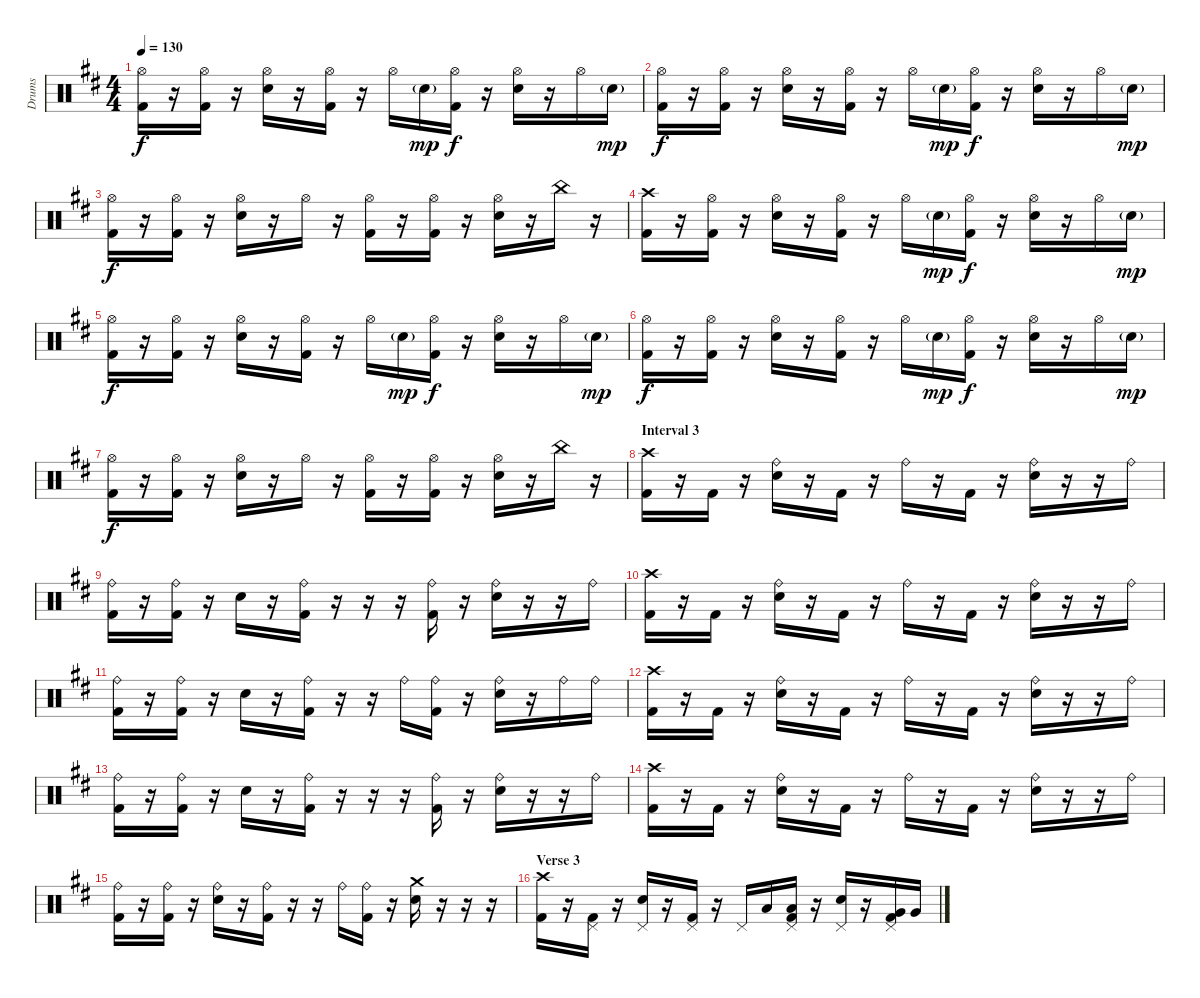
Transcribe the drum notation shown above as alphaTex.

\track ("Drums" "Drums") {instrument percussion}
\staff {score}
\articulation defaults
\ts (4 4)
\tempo 130
\clef neutral
\ks d
("Hi-Hat (open)" "Kick (hit) 2").16{dy f} r.16 ("Hi-Hat (open)" "Kick (hit) 2").16 r.16 ("Hi-Hat (open)" "Electric Snare (hit)").16 r.16 ("Hi-Hat (open)" "Kick (hit) 2").16 r.16 "Hi-Hat (open)".16 "Electric Snare (hit)"{g}.16{dy mp} ("Hi-Hat (open)" "Kick (hit) 2").16{dy f} r.16 ("Hi-Hat (open)" "Electric Snare (hit)").16 r.16 "Hi-Hat (open)".16 "Electric Snare (hit)"{g}.16{dy mp} |
("Hi-Hat (open)" "Kick (hit) 2").16{dy f} r.16 ("Hi-Hat (open)" "Kick (hit) 2").16 r.16 ("Hi-Hat (open)" "Electric Snare (hit)").16 r.16 ("Hi-Hat (open)" "Kick (hit) 2").16 r.16 "Hi-Hat (open)".16 "Electric Snare (hit)"{g}.16{dy mp} ("Hi-Hat (open)" "Kick (hit) 2").16{dy f} r.16 ("Hi-Hat (open)" "Electric Snare (hit)").16 r.16 "Hi-Hat (open)".16 "Electric Snare (hit)"{g}.16{dy mp} |
("Hi-Hat (open)" "Kick (hit) 2").16{dy f} r.16 ("Hi-Hat (open)" "Kick (hit) 2").16 r.16 ("Hi-Hat (open)" "Electric Snare (hit)").16 r.16 "Hi-Hat (open)".16 r.16 ("Hi-Hat (open)" "Kick (hit) 2").16 r.16 ("Hi-Hat (open)" "Kick (hit) 2").16 r.16 ("Hi-Hat (open)" "Electric Snare (hit)").16 r.16 "China (hit)".16 r.16 |
("Crash high (hit)" "Kick (hit) 2").16 r.16 ("Hi-Hat (open)" "Kick (hit) 2").16 r.16 ("Hi-Hat (open)" "Electric Snare (hit)").16 r.16 ("Hi-Hat (open)" "Kick (hit) 2").16 r.16 "Hi-Hat (open)".16 "Electric Snare (hit)"{g}.16{dy mp} ("Hi-Hat (open)" "Kick (hit) 2").16{dy f} r.16 ("Hi-Hat (open)" "Electric Snare (hit)").16 r.16 "Hi-Hat (open)".16 "Electric Snare (hit)"{g}.16{dy mp} |
("Hi-Hat (open)" "Kick (hit) 2").16{dy f} r.16 ("Hi-Hat (open)" "Kick (hit) 2").16 r.16 ("Hi-Hat (open)" "Electric Snare (hit)").16 r.16 ("Hi-Hat (open)" "Kick (hit) 2").16 r.16 "Hi-Hat (open)".16 "Electric Snare (hit)"{g}.16{dy mp} ("Hi-Hat (open)" "Kick (hit) 2").16{dy f} r.16 ("Hi-Hat (open)" "Electric Snare (hit)").16 r.16 "Hi-Hat (open)".16 "Electric Snare (hit)"{g}.16{dy mp} |
("Hi-Hat (open)" "Kick (hit) 2").16{dy f} r.16 ("Hi-Hat (open)" "Kick (hit) 2").16 r.16 ("Hi-Hat (open)" "Electric Snare (hit)").16 r.16 ("Hi-Hat (open)" "Kick (hit) 2").16 r.16 "Hi-Hat (open)".16 "Electric Snare (hit)"{g}.16{dy mp} ("Hi-Hat (open)" "Kick (hit) 2").16{dy f} r.16 ("Hi-Hat (open)" "Electric Snare (hit)").16 r.16 "Hi-Hat (open)".16 "Electric Snare (hit)"{g}.16{dy mp} |
("Hi-Hat (open)" "Kick (hit) 2").16{dy f} r.16 ("Hi-Hat (open)" "Kick (hit) 2").16 r.16 ("Hi-Hat (open)" "Electric Snare (hit)").16 r.16 "Hi-Hat (open)".16 r.16 ("Hi-Hat (open)" "Kick (hit) 2").16 r.16 ("Hi-Hat (open)" "Kick (hit) 2").16 r.16 ("Hi-Hat (open)" "Electric Snare (hit)").16 r.16 "China (hit)".16 r.16 |
\section ("" "Interval 3")
("Crash high (hit)" "Kick (hit) 2").16 r.16 "Kick (hit) 2".16 r.16 ("Ride (bell)" "Electric Snare (hit)").16 r.16 "Kick (hit) 2".16 r.16 "Ride (bell)".16 r.16 "Kick (hit) 2".16 r.16 ("Ride (bell)" "Electric Snare (hit)").16 r.16 r.16 "Ride (bell)".16 |
("Ride (bell)" "Kick (hit) 2").16 r.16 ("Ride (bell)" "Kick (hit) 2").16 r.16 "Electric Snare (hit)".16 r.16 ("Ride (bell)" "Kick (hit) 2").16 r.16 r.16 r.16 ("Ride (bell)" "Kick (hit) 2").16 r.16 ("Ride (bell)" "Electric Snare (hit)").16 r.16 r.16 "Ride (bell)".16 |
("Crash high (hit)" "Kick (hit) 2").16 r.16 "Kick (hit) 2".16 r.16 ("Ride (bell)" "Electric Snare (hit)").16 r.16 "Kick (hit) 2".16 r.16 "Ride (bell)".16 r.16 "Kick (hit) 2".16 r.16 ("Ride (bell)" "Electric Snare (hit)").16 r.16 r.16 "Ride (bell)".16 |
("Ride (bell)" "Kick (hit) 2").16 r.16 ("Ride (bell)" "Kick (hit) 2").16 r.16 "Electric Snare (hit)".16 r.16 ("Ride (bell)" "Kick (hit) 2").16 r.16 r.16 "Ride (bell)".16 ("Ride (bell)" "Kick (hit) 2").16 r.16 ("Ride (bell)" "Electric Snare (hit)").16 r.16 "Ride (bell)".16 "Ride (bell)".16 |
("Crash high (hit)" "Kick (hit) 2").16 r.16 "Kick (hit) 2".16 r.16 ("Ride (bell)" "Electric Snare (hit)").16 r.16 "Kick (hit) 2".16 r.16 "Ride (bell)".16 r.16 "Kick (hit) 2".16 r.16 ("Ride (bell)" "Electric Snare (hit)").16 r.16 r.16 "Ride (bell)".16 |
("Ride (bell)" "Kick (hit) 2").16 r.16 ("Ride (bell)" "Kick (hit) 2").16 r.16 "Electric Snare (hit)".16 r.16 ("Ride (bell)" "Kick (hit) 2").16 r.16 r.16 r.16 ("Ride (bell)" "Kick (hit) 2").16 r.16 ("Ride (bell)" "Electric Snare (hit)").16 r.16 r.16 "Ride (bell)".16 |
("Crash high (hit)" "Kick (hit) 2").16 r.16 "Kick (hit) 2".16 r.16 ("Ride (bell)" "Electric Snare (hit)").16 r.16 "Kick (hit) 2".16 r.16 "Ride (bell)".16 r.16 "Kick (hit) 2".16 r.16 ("Ride (bell)" "Electric Snare (hit)").16 r.16 r.16 "Ride (bell)".16 |
("Ride (bell)" "Kick (hit) 2").16 r.16 ("Ride (bell)" "Kick (hit) 2").16 r.16 ("Ride (bell)" "Electric Snare (hit)").16 r.16 ("Ride (bell)" "Kick (hit) 2").16 r.16 r.16 "Ride (bell)".16 ("Ride (bell)" "Kick (hit) 2").16 r.16 ("Crash medium (hit)" "Electric Snare (hit)").16 r.16 r.16 r.16 |
\section ("" "Verse 3")
("Crash high (hit)" "Kick (hit) 2").16 r.16 ("Pedal Hi-Hat (hit)" "Kick (hit) 2").16 r.16 ("Pedal Hi-Hat (hit)" "Electric Snare (hit)").16 r.16 ("Pedal Hi-Hat (hit)" "Kick (hit) 2").16 r.16 "Pedal Hi-Hat (hit)".16 "Low Tom (hit)".16 ("Pedal Hi-Hat (hit)" "Low Tom (hit)" "Kick (hit) 2").16 r.16 ("Pedal Hi-Hat (hit)" "Electric Snare (hit)").16 r.16 ("Pedal Hi-Hat (hit)" "Very Low Tom (hit)" "Kick (hit) 2").16 "Very Low Tom (hit)".16
